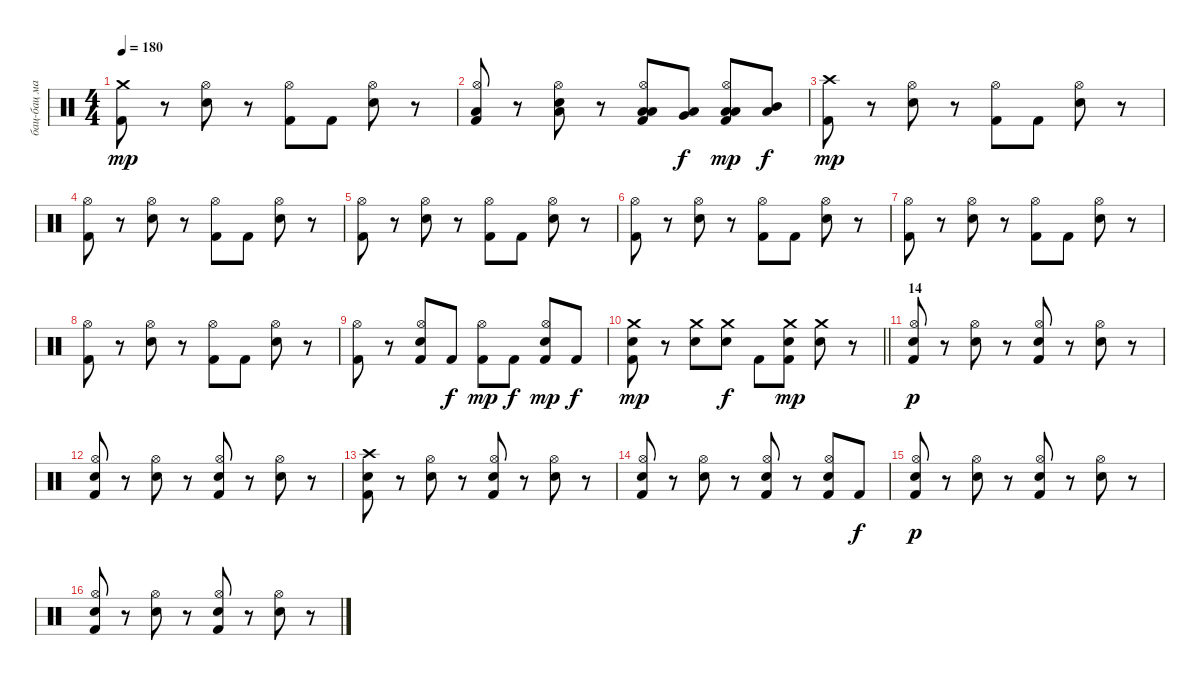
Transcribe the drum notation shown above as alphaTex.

\track ("бац-бац машина" "бац-бац ма") {instrument percussion}
\staff {score}
\articulation defaults
\ts (4 4)
\tempo 180
\clef neutral
\ks c
("Crash medium (hit)" "Kick (hit) 2").8{dy mp} r.8 ("Hi-Hat (open)" "Snare (hit) 2").8 r.8 ("Hi-Hat (open)" "Kick (hit) 2").8 "Kick (hit) 2".8 ("Hi-Hat (open)" "Snare (hit) 2").8 r.8 |
("Hi-Hat (open)" "Low Tom (hit)" "Kick (hit) 2").8 r.8 ("Hi-Hat (open)" "Low Tom (hit)" "Snare (hit) 2").8 r.8 ("Hi-Hat (open)" "Low Tom (hit)" "Low Floor Tom (hit)" "Kick (hit) 2").8 ("Low Tom (hit)" "Very Low Tom (hit)").8{dy f} ("Hi-Hat (open)" "Low Tom (hit)" "Low Tom (hit)" "Kick (hit) 2").8{dy mp} ("Low Tom (hit)" "Mid Tom (hit)").8{dy f} |
("Crash high (hit)" "Kick (hit) 2").8{dy mp} r.8 ("Hi-Hat (open)" "Snare (hit) 2").8 r.8 ("Hi-Hat (open)" "Kick (hit) 2").8 "Kick (hit) 2".8 ("Hi-Hat (open)" "Snare (hit) 2").8 r.8 |
("Hi-Hat (open)" "Kick (hit) 2").8 r.8 ("Hi-Hat (open)" "Snare (hit) 2").8 r.8 ("Hi-Hat (open)" "Kick (hit) 2").8 "Kick (hit) 2".8 ("Hi-Hat (open)" "Snare (hit) 2").8 r.8 |
("Hi-Hat (open)" "Kick (hit) 2").8 r.8 ("Hi-Hat (open)" "Snare (hit) 2").8 r.8 ("Hi-Hat (open)" "Kick (hit) 2").8 "Kick (hit) 2".8 ("Hi-Hat (open)" "Snare (hit) 2").8 r.8 |
("Hi-Hat (open)" "Kick (hit) 2").8 r.8 ("Hi-Hat (open)" "Snare (hit) 2").8 r.8 ("Hi-Hat (open)" "Kick (hit) 2").8 "Kick (hit) 2".8 ("Hi-Hat (open)" "Snare (hit) 2").8 r.8 |
("Hi-Hat (open)" "Kick (hit) 2").8 r.8 ("Hi-Hat (open)" "Snare (hit) 2").8 r.8 ("Hi-Hat (open)" "Kick (hit) 2").8 "Kick (hit) 2".8 ("Hi-Hat (open)" "Snare (hit) 2").8 r.8 |
("Hi-Hat (open)" "Kick (hit) 2").8 r.8 ("Hi-Hat (open)" "Snare (hit) 2").8 r.8 ("Hi-Hat (open)" "Kick (hit) 2").8 "Kick (hit) 2".8 ("Hi-Hat (open)" "Snare (hit) 2").8 r.8 |
("Hi-Hat (open)" "Kick (hit) 2").8 r.8 ("Hi-Hat (open)" "Snare (hit) 2" "Kick (hit) 2").8 "Kick (hit) 2".8{dy f} ("Hi-Hat (open)" "Kick (hit) 2").8{dy mp} "Kick (hit) 2".8{dy f} ("Hi-Hat (open)" "Snare (hit) 2" "Kick (hit) 2").8{dy mp} "Kick (hit) 2".8{dy f} |
\barLineRight lightlight
("Crash medium (hit)" "Snare (hit) 2" "Kick (hit) 2").8{dy mp} r.8 ("Crash medium (hit)" "Snare (hit) 2").8 ("Crash medium (hit)" "Snare (hit) 2").8{dy f} "Kick (hit) 2".8 ("Crash medium (hit)" "Snare (hit) 2" "Kick (hit) 2").8{dy mp} ("Crash medium (hit)" "Snare (hit) 2").8 r.8 |
\section ("" "14")
("Hi-Hat (open)" "Snare (hit) 2" "Kick (hit) 2").8{dy p} r.8 ("Hi-Hat (open)" "Snare (hit) 2").8 r.8 ("Hi-Hat (open)" "Snare (hit) 2" "Kick (hit) 2").8 r.8 ("Hi-Hat (open)" "Snare (hit) 2").8 r.8 |
("Hi-Hat (open)" "Snare (hit) 2" "Kick (hit) 2").8 r.8 ("Hi-Hat (open)" "Snare (hit) 2").8 r.8 ("Hi-Hat (open)" "Snare (hit) 2" "Kick (hit) 2").8 r.8 ("Hi-Hat (open)" "Snare (hit) 2").8 r.8 |
("Crash high (hit)" "Snare (hit) 2" "Kick (hit) 2").8 r.8 ("Hi-Hat (open)" "Snare (hit) 2").8 r.8 ("Hi-Hat (open)" "Snare (hit) 2" "Kick (hit) 2").8 r.8 ("Hi-Hat (open)" "Snare (hit) 2").8 r.8 |
("Hi-Hat (open)" "Snare (hit) 2" "Kick (hit) 2").8 r.8 ("Hi-Hat (open)" "Snare (hit) 2").8 r.8 ("Hi-Hat (open)" "Snare (hit) 2" "Kick (hit) 2").8 r.8 ("Hi-Hat (open)" "Snare (hit) 2" "Kick (hit) 2").8 "Kick (hit) 2".8{dy f} |
("Hi-Hat (open)" "Snare (hit) 2" "Kick (hit) 2").8{dy p} r.8 ("Hi-Hat (open)" "Snare (hit) 2").8 r.8 ("Hi-Hat (open)" "Snare (hit) 2" "Kick (hit) 2").8 r.8 ("Hi-Hat (open)" "Snare (hit) 2").8 r.8 |
("Hi-Hat (open)" "Snare (hit) 2" "Kick (hit) 2").8 r.8 ("Hi-Hat (open)" "Snare (hit) 2").8 r.8 ("Hi-Hat (open)" "Snare (hit) 2" "Kick (hit) 2").8 r.8 ("Hi-Hat (open)" "Snare (hit) 2").8 r.8
